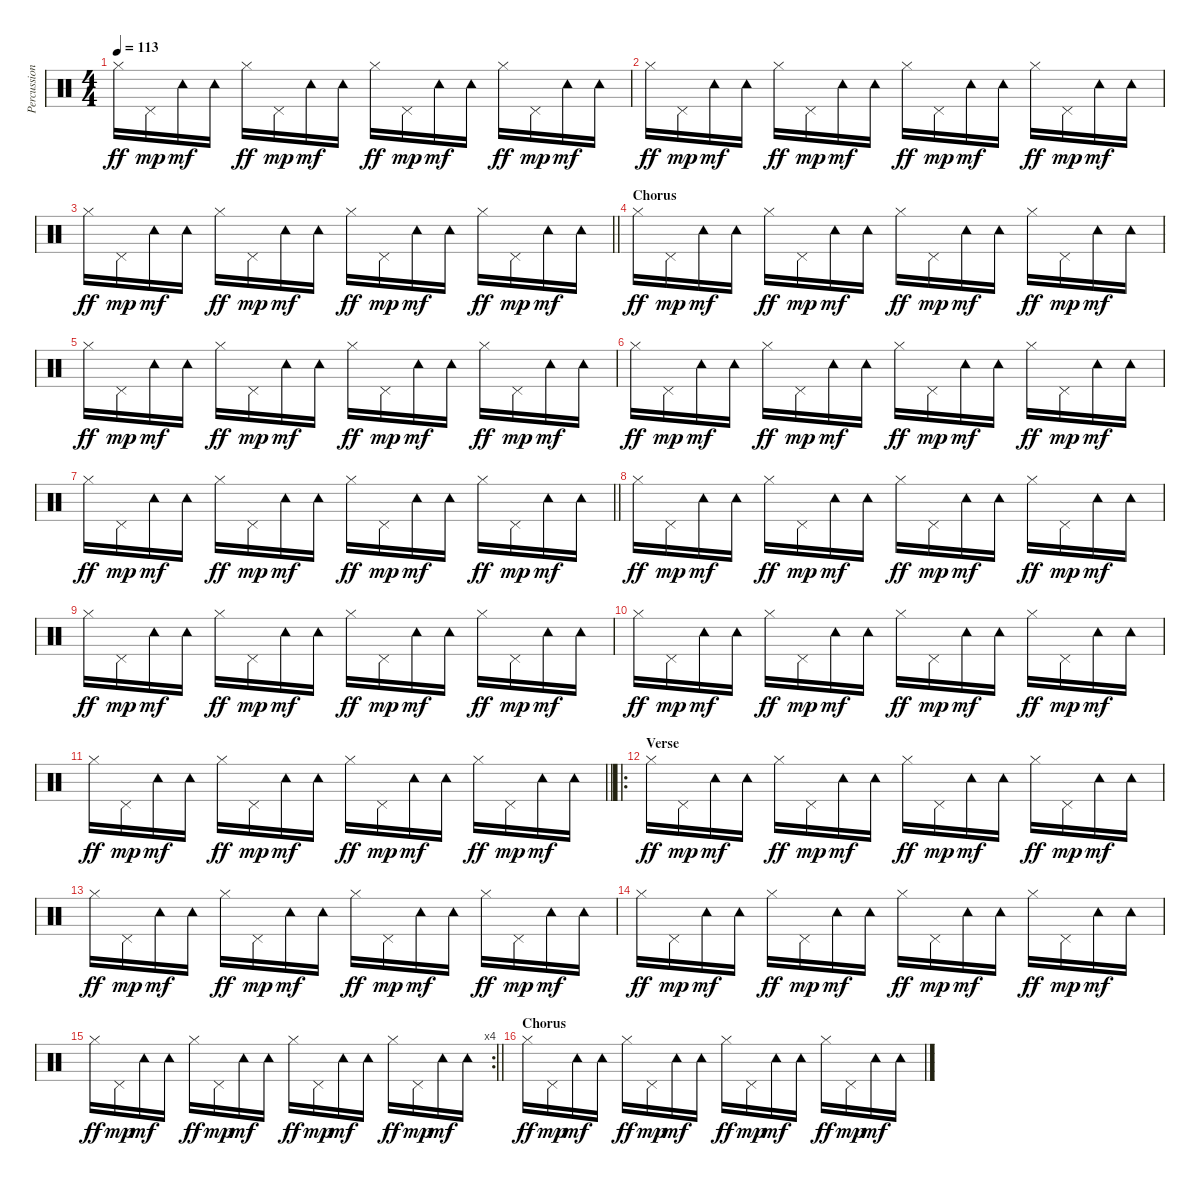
\track ("Percussion" "Percussion") {instrument percussion}
\staff {score}
\articulation defaults
\ts (4 4)
\tempo 113
\clef neutral
\ks c "Hi-Hat (closed)".16{dy ff} "Pedal Hi-Hat (hit)".16{dy mp} "Tambourine (hit)".16{dy mf} "Tambourine (hit)".16 "Hi-Hat (closed)".16{dy ff} "Pedal Hi-Hat (hit)".16{dy mp} "Tambourine (hit)".16{dy mf} "Tambourine (hit)".16 "Hi-Hat (closed)".16{dy ff} "Pedal Hi-Hat (hit)".16{dy mp} "Tambourine (hit)".16{dy mf} "Tambourine (hit)".16 "Hi-Hat (closed)".16{dy ff} "Pedal Hi-Hat (hit)".16{dy mp} "Tambourine (hit)".16{dy mf} "Tambourine (hit)".16
|
"Hi-Hat (closed)".16{dy ff} "Pedal Hi-Hat (hit)".16{dy mp} "Tambourine (hit)".16{dy mf} "Tambourine (hit)".16 "Hi-Hat (closed)".16{dy ff} "Pedal Hi-Hat (hit)".16{dy mp} "Tambourine (hit)".16{dy mf} "Tambourine (hit)".16 "Hi-Hat (closed)".16{dy ff} "Pedal Hi-Hat (hit)".16{dy mp} "Tambourine (hit)".16{dy mf} "Tambourine (hit)".16 "Hi-Hat (closed)".16{dy ff} "Pedal Hi-Hat (hit)".16{dy mp} "Tambourine (hit)".16{dy mf} "Tambourine (hit)".16 |
\barLineRight lightlight "Hi-Hat (closed)".16{dy ff} "Pedal Hi-Hat (hit)".16{dy mp} "Tambourine (hit)".16{dy mf} "Tambourine (hit)".16 "Hi-Hat (closed)".16{dy ff} "Pedal Hi-Hat (hit)".16{dy mp} "Tambourine (hit)".16{dy mf} "Tambourine (hit)".16 "Hi-Hat (closed)".16{dy ff} "Pedal Hi-Hat (hit)".16{dy mp} "Tambourine (hit)".16{dy mf} "Tambourine (hit)".16 "Hi-Hat (closed)".16{dy ff} "Pedal Hi-Hat (hit)".16{dy mp} "Tambourine (hit)".16{dy mf} "Tambourine (hit)".16
|
\section ("" "Chorus")
"Hi-Hat (closed)".16{dy ff} "Pedal Hi-Hat (hit)".16{dy mp} "Tambourine (hit)".16{dy mf} "Tambourine (hit)".16 "Hi-Hat (closed)".16{dy ff} "Pedal Hi-Hat (hit)".16{dy mp} "Tambourine (hit)".16{dy mf} "Tambourine (hit)".16 "Hi-Hat (closed)".16{dy ff} "Pedal Hi-Hat (hit)".16{dy mp} "Tambourine (hit)".16{dy mf} "Tambourine (hit)".16 "Hi-Hat (closed)".16{dy ff} "Pedal Hi-Hat (hit)".16{dy mp} "Tambourine (hit)".16{dy mf} "Tambourine (hit)".16 |
"Hi-Hat (closed)".16{dy ff} "Pedal Hi-Hat (hit)".16{dy mp} "Tambourine (hit)".16{dy mf} "Tambourine (hit)".16 "Hi-Hat (closed)".16{dy ff} "Pedal Hi-Hat (hit)".16{dy mp} "Tambourine (hit)".16{dy mf} "Tambourine (hit)".16 "Hi-Hat (closed)".16{dy ff} "Pedal Hi-Hat (hit)".16{dy mp} "Tambourine (hit)".16{dy mf} "Tambourine (hit)".16 "Hi-Hat (closed)".16{dy ff} "Pedal Hi-Hat (hit)".16{dy mp} "Tambourine (hit)".16{dy mf} "Tambourine (hit)".16 |
"Hi-Hat (closed)".16{dy ff} "Pedal Hi-Hat (hit)".16{dy mp} "Tambourine (hit)".16{dy mf} "Tambourine (hit)".16 "Hi-Hat (closed)".16{dy ff} "Pedal Hi-Hat (hit)".16{dy mp} "Tambourine (hit)".16{dy mf} "Tambourine (hit)".16 "Hi-Hat (closed)".16{dy ff} "Pedal Hi-Hat (hit)".16{dy mp} "Tambourine (hit)".16{dy mf} "Tambourine (hit)".16 "Hi-Hat (closed)".16{dy ff} "Pedal Hi-Hat (hit)".16{dy mp} "Tambourine (hit)".16{dy mf} "Tambourine (hit)".16 |
\barLineRight lightlight "Hi-Hat (closed)".16{dy ff} "Pedal Hi-Hat (hit)".16{dy mp} "Tambourine (hit)".16{dy mf} "Tambourine (hit)".16 "Hi-Hat (closed)".16{dy ff} "Pedal Hi-Hat (hit)".16{dy mp} "Tambourine (hit)".16{dy mf} "Tambourine (hit)".16 "Hi-Hat (closed)".16{dy ff} "Pedal Hi-Hat (hit)".16{dy mp} "Tambourine (hit)".16{dy mf} "Tambourine (hit)".16 "Hi-Hat (closed)".16{dy ff} "Pedal Hi-Hat (hit)".16{dy mp} "Tambourine (hit)".16{dy mf} "Tambourine (hit)".16
|
"Hi-Hat (closed)".16{dy ff} "Pedal Hi-Hat (hit)".16{dy mp} "Tambourine (hit)".16{dy mf} "Tambourine (hit)".16 "Hi-Hat (closed)".16{dy ff} "Pedal Hi-Hat (hit)".16{dy mp} "Tambourine (hit)".16{dy mf} "Tambourine (hit)".16 "Hi-Hat (closed)".16{dy ff} "Pedal Hi-Hat (hit)".16{dy mp} "Tambourine (hit)".16{dy mf} "Tambourine (hit)".16 "Hi-Hat (closed)".16{dy ff} "Pedal Hi-Hat (hit)".16{dy mp} "Tambourine (hit)".16{dy mf} "Tambourine (hit)".16 |
"Hi-Hat (closed)".16{dy ff} "Pedal Hi-Hat (hit)".16{dy mp} "Tambourine (hit)".16{dy mf} "Tambourine (hit)".16 "Hi-Hat (closed)".16{dy ff} "Pedal Hi-Hat (hit)".16{dy mp} "Tambourine (hit)".16{dy mf} "Tambourine (hit)".16 "Hi-Hat (closed)".16{dy ff} "Pedal Hi-Hat (hit)".16{dy mp} "Tambourine (hit)".16{dy mf} "Tambourine (hit)".16 "Hi-Hat (closed)".16{dy ff} "Pedal Hi-Hat (hit)".16{dy mp} "Tambourine (hit)".16{dy mf} "Tambourine (hit)".16 |
"Hi-Hat (closed)".16{dy ff} "Pedal Hi-Hat (hit)".16{dy mp} "Tambourine (hit)".16{dy mf} "Tambourine (hit)".16 "Hi-Hat (closed)".16{dy ff} "Pedal Hi-Hat (hit)".16{dy mp} "Tambourine (hit)".16{dy mf} "Tambourine (hit)".16 "Hi-Hat (closed)".16{dy ff} "Pedal Hi-Hat (hit)".16{dy mp} "Tambourine (hit)".16{dy mf} "Tambourine (hit)".16 "Hi-Hat (closed)".16{dy ff} "Pedal Hi-Hat (hit)".16{dy mp} "Tambourine (hit)".16{dy mf} "Tambourine (hit)".16 |
\barLineRight lightlight "Hi-Hat (closed)".16{dy ff} "Pedal Hi-Hat (hit)".16{dy mp} "Tambourine (hit)".16{dy mf} "Tambourine (hit)".16 "Hi-Hat (closed)".16{dy ff} "Pedal Hi-Hat (hit)".16{dy mp} "Tambourine (hit)".16{dy mf} "Tambourine (hit)".16 "Hi-Hat (closed)".16{dy ff} "Pedal Hi-Hat (hit)".16{dy mp} "Tambourine (hit)".16{dy mf} "Tambourine (hit)".16 "Hi-Hat (closed)".16{dy ff} "Pedal Hi-Hat (hit)".16{dy mp} "Tambourine (hit)".16{dy mf} "Tambourine (hit)".16
|
\ro
\section ("" "Verse")
"Hi-Hat (closed)".16{dy ff} "Pedal Hi-Hat (hit)".16{dy mp} "Tambourine (hit)".16{dy mf} "Tambourine (hit)".16 "Hi-Hat (closed)".16{dy ff} "Pedal Hi-Hat (hit)".16{dy mp} "Tambourine (hit)".16{dy mf} "Tambourine (hit)".16 "Hi-Hat (closed)".16{dy ff} "Pedal Hi-Hat (hit)".16{dy mp} "Tambourine (hit)".16{dy mf} "Tambourine (hit)".16 "Hi-Hat (closed)".16{dy ff} "Pedal Hi-Hat (hit)".16{dy mp} "Tambourine (hit)".16{dy mf} "Tambourine (hit)".16 |
"Hi-Hat (closed)".16{dy ff} "Pedal Hi-Hat (hit)".16{dy mp} "Tambourine (hit)".16{dy mf} "Tambourine (hit)".16 "Hi-Hat (closed)".16{dy ff} "Pedal Hi-Hat (hit)".16{dy mp} "Tambourine (hit)".16{dy mf} "Tambourine (hit)".16 "Hi-Hat (closed)".16{dy ff} "Pedal Hi-Hat (hit)".16{dy mp} "Tambourine (hit)".16{dy mf} "Tambourine (hit)".16 "Hi-Hat (closed)".16{dy ff} "Pedal Hi-Hat (hit)".16{dy mp} "Tambourine (hit)".16{dy mf} "Tambourine (hit)".16 |
"Hi-Hat (closed)".16{dy ff} "Pedal Hi-Hat (hit)".16{dy mp} "Tambourine (hit)".16{dy mf} "Tambourine (hit)".16 "Hi-Hat (closed)".16{dy ff} "Pedal Hi-Hat (hit)".16{dy mp} "Tambourine (hit)".16{dy mf} "Tambourine (hit)".16 "Hi-Hat (closed)".16{dy ff} "Pedal Hi-Hat (hit)".16{dy mp} "Tambourine (hit)".16{dy mf} "Tambourine (hit)".16 "Hi-Hat (closed)".16{dy ff} "Pedal Hi-Hat (hit)".16{dy mp} "Tambourine (hit)".16{dy mf} "Tambourine (hit)".16 |
\rc 4
\barLineRight lightlight "Hi-Hat (closed)".16{dy ff} "Pedal Hi-Hat (hit)".16{dy mp} "Tambourine (hit)".16{dy mf} "Tambourine (hit)".16 "Hi-Hat (closed)".16{dy ff} "Pedal Hi-Hat (hit)".16{dy mp} "Tambourine (hit)".16{dy mf} "Tambourine (hit)".16 "Hi-Hat (closed)".16{dy ff} "Pedal Hi-Hat (hit)".16{dy mp} "Tambourine (hit)".16{dy mf} "Tambourine (hit)".16 "Hi-Hat (closed)".16{dy ff} "Pedal Hi-Hat (hit)".16{dy mp} "Tambourine (hit)".16{dy mf} "Tambourine (hit)".16
|
\section ("" "Chorus")
"Hi-Hat (closed)".16{dy ff} "Pedal Hi-Hat (hit)".16{dy mp} "Tambourine (hit)".16{dy mf} "Tambourine (hit)".16 "Hi-Hat (closed)".16{dy ff} "Pedal Hi-Hat (hit)".16{dy mp} "Tambourine (hit)".16{dy mf} "Tambourine (hit)".16 "Hi-Hat (closed)".16{dy ff} "Pedal Hi-Hat (hit)".16{dy mp} "Tambourine (hit)".16{dy mf} "Tambourine (hit)".16 "Hi-Hat (closed)".16{dy ff} "Pedal Hi-Hat (hit)".16{dy mp} "Tambourine (hit)".16{dy mf} "Tambourine (hit)".16
